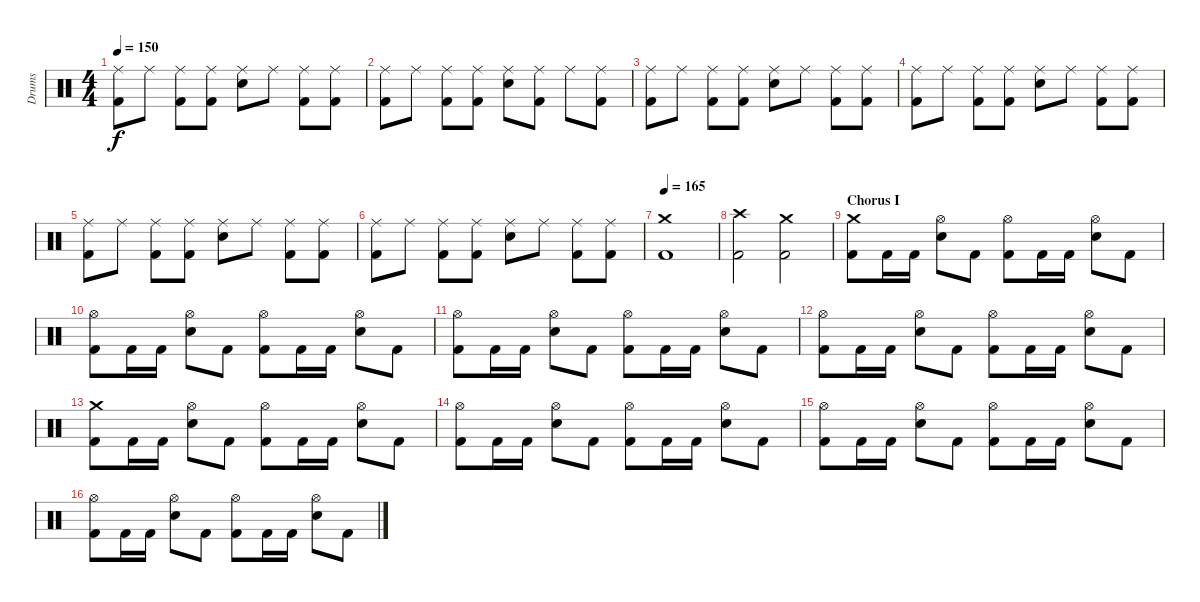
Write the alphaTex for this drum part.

\track ("Drums" "Drums") {instrument percussion}
\staff {score}
\articulation defaults
\ts (4 4)
\tempo 150
\clef neutral
\ks c
("Kick (hit) 2" "Ride (middle)").8{dy f} "Ride (middle)".8 ("Kick (hit) 2" "Ride (middle)").8 ("Kick (hit) 2" "Ride (middle)").8 ("Electric Snare (hit)" "Ride (middle)").8 "Ride (middle)".8 ("Kick (hit) 2" "Ride (middle)").8 ("Kick (hit) 2" "Ride (middle)").8 |
("Kick (hit) 2" "Ride (middle)").8 "Ride (middle)".8 ("Kick (hit) 2" "Ride (middle)").8 ("Kick (hit) 2" "Ride (middle)").8 ("Electric Snare (hit)" "Ride (middle)").8 ("Kick (hit) 2" "Ride (middle)").8 "Ride (middle)".8 ("Kick (hit) 2" "Ride (middle)").8 |
("Kick (hit) 2" "Ride (middle)").8 "Ride (middle)".8 ("Kick (hit) 2" "Ride (middle)").8 ("Kick (hit) 2" "Ride (middle)").8 ("Electric Snare (hit)" "Ride (middle)").8 "Ride (middle)".8 ("Kick (hit) 2" "Ride (middle)").8 ("Kick (hit) 2" "Ride (middle)").8 |
("Kick (hit) 2" "Ride (middle)").8 "Ride (middle)".8 ("Kick (hit) 2" "Ride (middle)").8 ("Kick (hit) 2" "Ride (middle)").8 ("Electric Snare (hit)" "Ride (middle)").8 "Ride (middle)".8 ("Kick (hit) 2" "Ride (middle)").8 ("Kick (hit) 2" "Ride (middle)").8 |
("Kick (hit) 2" "Ride (middle)").8 "Ride (middle)".8 ("Kick (hit) 2" "Ride (middle)").8 ("Kick (hit) 2" "Ride (middle)").8 ("Electric Snare (hit)" "Ride (middle)").8 "Ride (middle)".8 ("Kick (hit) 2" "Ride (middle)").8 ("Kick (hit) 2" "Ride (middle)").8 |
("Kick (hit) 2" "Ride (middle)").8 "Ride (middle)".8 ("Kick (hit) 2" "Ride (middle)").8 ("Kick (hit) 2" "Ride (middle)").8 ("Electric Snare (hit)" "Ride (middle)").8 "Ride (middle)".8 ("Kick (hit) 2" "Ride (middle)").8 ("Kick (hit) 2" "Ride (middle)").8 |
\tempo 165
("Kick (hit) 2" "Crash medium (hit)").1 |
("Kick (hit) 2" "Crash high (hit)").2 ("Kick (hit) 2" "Crash medium (hit)").2 |
\section ("" "Chorus I")
("Kick (hit) 2" "Crash medium (hit)").8 "Kick (hit) 2".16 "Kick (hit) 2".16 ("Electric Snare (hit)" "Hi-Hat (open)").8 "Kick (hit) 2".8 ("Kick (hit) 2" "Hi-Hat (open)").8 "Kick (hit) 2".16 "Kick (hit) 2".16 ("Electric Snare (hit)" "Hi-Hat (open)").8 "Kick (hit) 2".8 |
("Kick (hit) 2" "Hi-Hat (open)").8 "Kick (hit) 2".16 "Kick (hit) 2".16 ("Electric Snare (hit)" "Hi-Hat (open)").8 "Kick (hit) 2".8 ("Kick (hit) 2" "Hi-Hat (open)").8 "Kick (hit) 2".16 "Kick (hit) 2".16 ("Electric Snare (hit)" "Hi-Hat (open)").8 "Kick (hit) 2".8 |
("Kick (hit) 2" "Hi-Hat (open)").8 "Kick (hit) 2".16 "Kick (hit) 2".16 ("Electric Snare (hit)" "Hi-Hat (open)").8 "Kick (hit) 2".8 ("Kick (hit) 2" "Hi-Hat (open)").8 "Kick (hit) 2".16 "Kick (hit) 2".16 ("Electric Snare (hit)" "Hi-Hat (open)").8 "Kick (hit) 2".8 |
("Kick (hit) 2" "Hi-Hat (open)").8 "Kick (hit) 2".16 "Kick (hit) 2".16 ("Electric Snare (hit)" "Hi-Hat (open)").8 "Kick (hit) 2".8 ("Kick (hit) 2" "Hi-Hat (open)").8 "Kick (hit) 2".16 "Kick (hit) 2".16 ("Electric Snare (hit)" "Hi-Hat (open)").8 "Kick (hit) 2".8 |
("Kick (hit) 2" "Crash medium (hit)").8 "Kick (hit) 2".16 "Kick (hit) 2".16 ("Electric Snare (hit)" "Hi-Hat (open)").8 "Kick (hit) 2".8 ("Kick (hit) 2" "Hi-Hat (open)").8 "Kick (hit) 2".16 "Kick (hit) 2".16 ("Electric Snare (hit)" "Hi-Hat (open)").8 "Kick (hit) 2".8 |
("Kick (hit) 2" "Hi-Hat (open)").8 "Kick (hit) 2".16 "Kick (hit) 2".16 ("Electric Snare (hit)" "Hi-Hat (open)").8 "Kick (hit) 2".8 ("Kick (hit) 2" "Hi-Hat (open)").8 "Kick (hit) 2".16 "Kick (hit) 2".16 ("Electric Snare (hit)" "Hi-Hat (open)").8 "Kick (hit) 2".8 |
("Kick (hit) 2" "Hi-Hat (open)").8 "Kick (hit) 2".16 "Kick (hit) 2".16 ("Electric Snare (hit)" "Hi-Hat (open)").8 "Kick (hit) 2".8 ("Kick (hit) 2" "Hi-Hat (open)").8 "Kick (hit) 2".16 "Kick (hit) 2".16 ("Electric Snare (hit)" "Hi-Hat (open)").8 "Kick (hit) 2".8 |
("Kick (hit) 2" "Hi-Hat (open)").8 "Kick (hit) 2".16 "Kick (hit) 2".16 ("Electric Snare (hit)" "Hi-Hat (open)").8 "Kick (hit) 2".8 ("Kick (hit) 2" "Hi-Hat (open)").8 "Kick (hit) 2".16 "Kick (hit) 2".16 ("Electric Snare (hit)" "Hi-Hat (open)").8 "Kick (hit) 2".8
